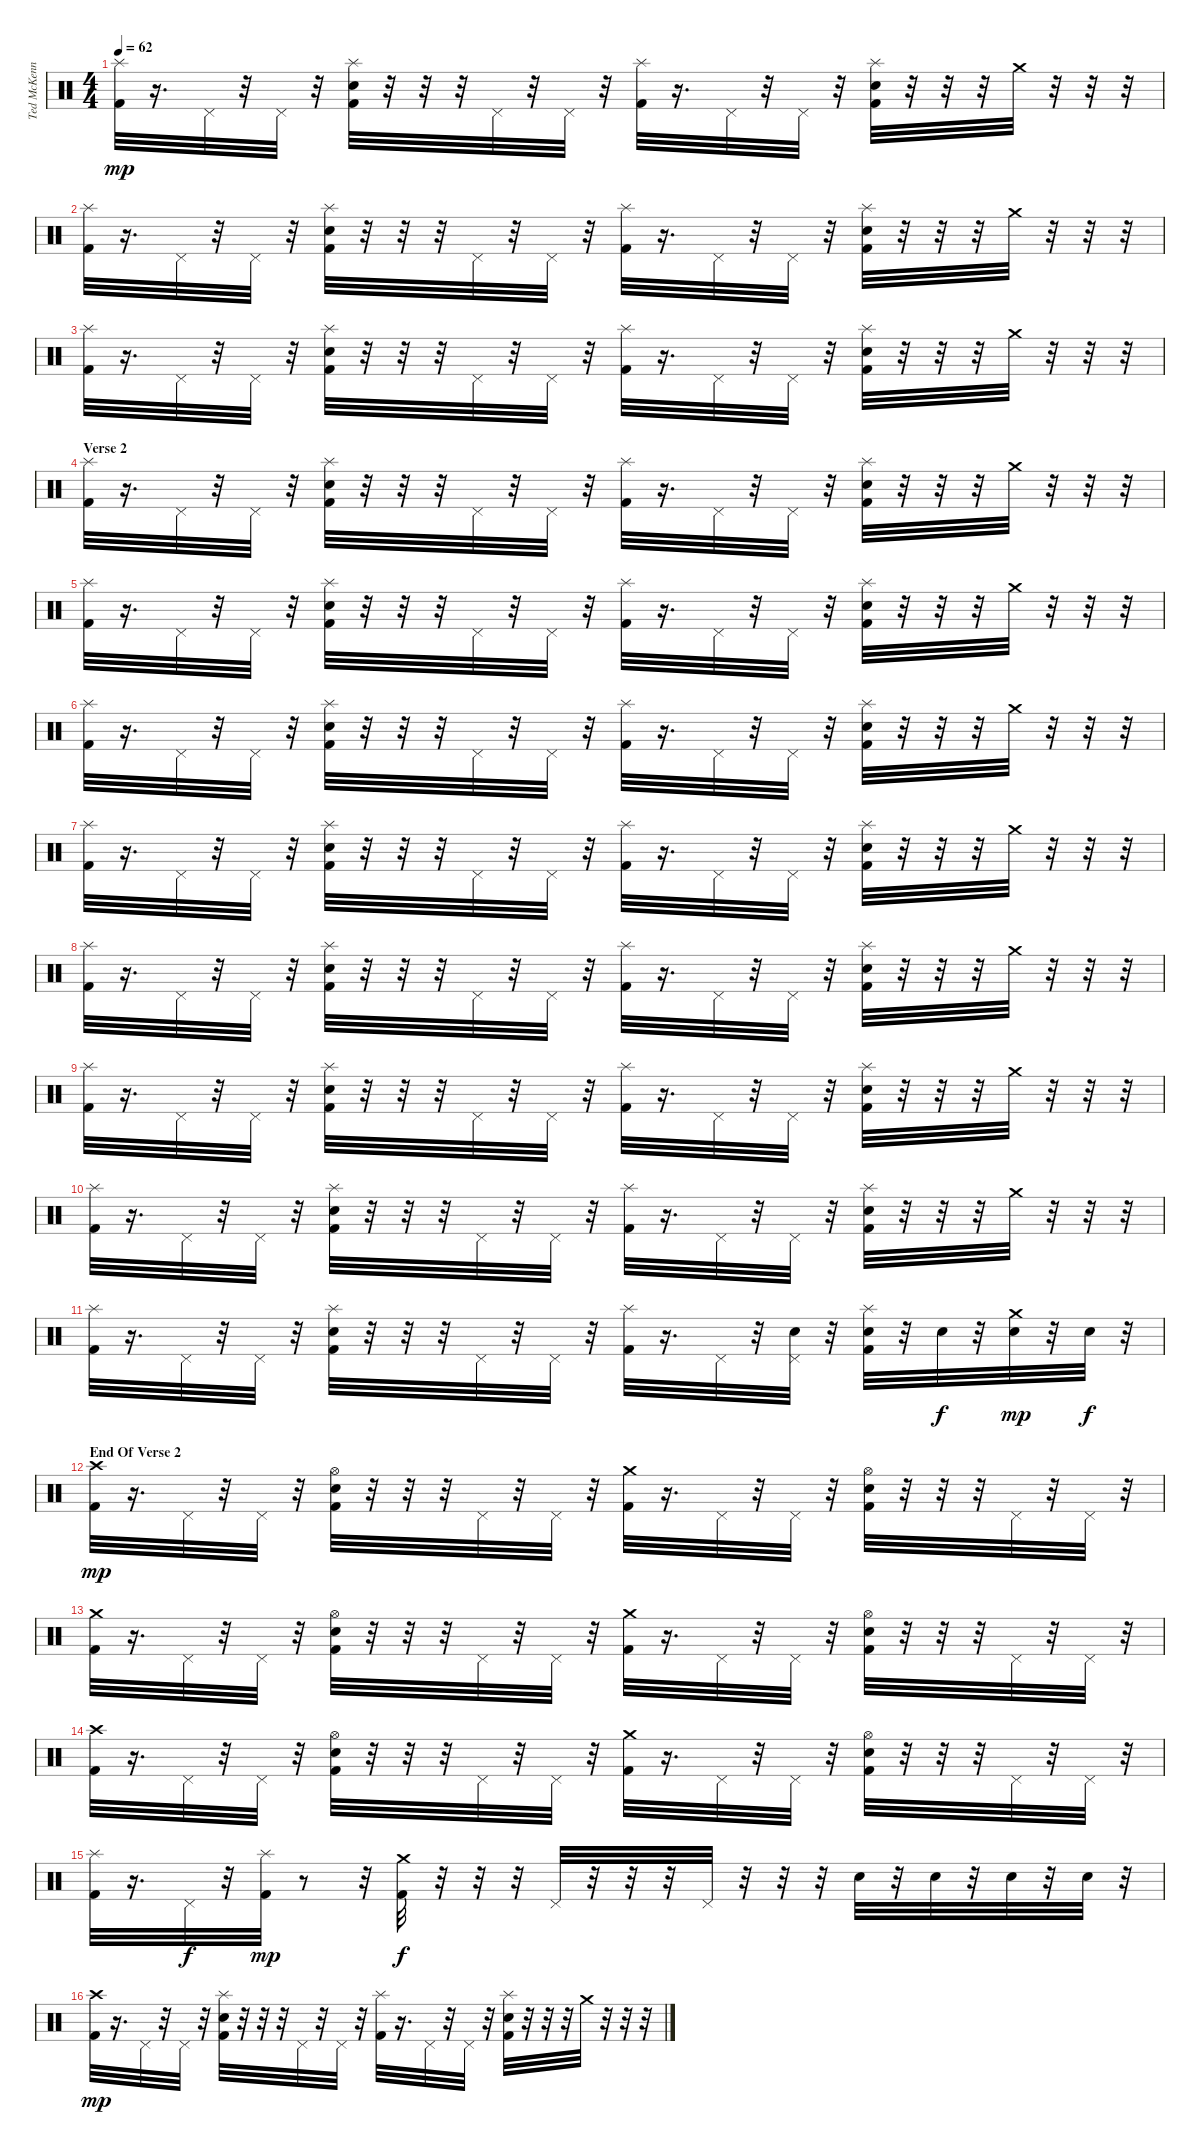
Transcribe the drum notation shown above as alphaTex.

\track ("Ted McKenna" "Ted McKenn") {instrument percussion}
\staff {score}
\articulation defaults
\ts (4 4)
\tempo 62
\clef neutral
\ks c
("Splash (hit)" "Kick (hit) 2").32{dy mp} r.16{d} "Pedal Hi-Hat (hit)".32 r.32 "Pedal Hi-Hat (hit)".32 r.32 ("Splash (hit)" "Electric Snare (hit)" "Kick (hit) 2").32 r.32 r.32 r.32 "Pedal Hi-Hat (hit)".32 r.32 "Pedal Hi-Hat (hit)".32 r.32 ("Splash (hit)" "Kick (hit) 2").32 r.16{d} "Pedal Hi-Hat (hit)".32 r.32 "Pedal Hi-Hat (hit)".32 r.32 ("Splash (hit)" "Electric Snare (hit)" "Kick (hit) 2").32 r.32 r.32 r.32 "Crash medium (hit)".32 r.32 r.32 r.32 |
("Splash (hit)" "Kick (hit) 2").32 r.16{d} "Pedal Hi-Hat (hit)".32 r.32 "Pedal Hi-Hat (hit)".32 r.32 ("Splash (hit)" "Electric Snare (hit)" "Kick (hit) 2").32 r.32 r.32 r.32 "Pedal Hi-Hat (hit)".32 r.32 "Pedal Hi-Hat (hit)".32 r.32 ("Splash (hit)" "Kick (hit) 2").32 r.16{d} "Pedal Hi-Hat (hit)".32 r.32 "Pedal Hi-Hat (hit)".32 r.32 ("Splash (hit)" "Electric Snare (hit)" "Kick (hit) 2").32 r.32 r.32 r.32 "Crash medium (hit)".32 r.32 r.32 r.32 |
("Splash (hit)" "Kick (hit) 2").32 r.16{d} "Pedal Hi-Hat (hit)".32 r.32 "Pedal Hi-Hat (hit)".32 r.32 ("Splash (hit)" "Electric Snare (hit)" "Kick (hit) 2").32 r.32 r.32 r.32 "Pedal Hi-Hat (hit)".32 r.32 "Pedal Hi-Hat (hit)".32 r.32 ("Splash (hit)" "Kick (hit) 2").32 r.16{d} "Pedal Hi-Hat (hit)".32 r.32 "Pedal Hi-Hat (hit)".32 r.32 ("Splash (hit)" "Electric Snare (hit)" "Kick (hit) 2").32 r.32 r.32 r.32 "Crash medium (hit)".32 r.32 r.32 r.32 |
\section ("" "Verse 2")
("Splash (hit)" "Kick (hit) 2").32 r.16{d} "Pedal Hi-Hat (hit)".32 r.32 "Pedal Hi-Hat (hit)".32 r.32 ("Splash (hit)" "Electric Snare (hit)" "Kick (hit) 2").32 r.32 r.32 r.32 "Pedal Hi-Hat (hit)".32 r.32 "Pedal Hi-Hat (hit)".32 r.32 ("Splash (hit)" "Kick (hit) 2").32 r.16{d} "Pedal Hi-Hat (hit)".32 r.32 "Pedal Hi-Hat (hit)".32 r.32 ("Splash (hit)" "Electric Snare (hit)" "Kick (hit) 2").32 r.32 r.32 r.32 "Crash medium (hit)".32 r.32 r.32 r.32 |
("Splash (hit)" "Kick (hit) 2").32 r.16{d} "Pedal Hi-Hat (hit)".32 r.32 "Pedal Hi-Hat (hit)".32 r.32 ("Splash (hit)" "Electric Snare (hit)" "Kick (hit) 2").32 r.32 r.32 r.32 "Pedal Hi-Hat (hit)".32 r.32 "Pedal Hi-Hat (hit)".32 r.32 ("Splash (hit)" "Kick (hit) 2").32 r.16{d} "Pedal Hi-Hat (hit)".32 r.32 "Pedal Hi-Hat (hit)".32 r.32 ("Splash (hit)" "Electric Snare (hit)" "Kick (hit) 2").32 r.32 r.32 r.32 "Crash medium (hit)".32 r.32 r.32 r.32 |
("Splash (hit)" "Kick (hit) 2").32 r.16{d} "Pedal Hi-Hat (hit)".32 r.32 "Pedal Hi-Hat (hit)".32 r.32 ("Splash (hit)" "Electric Snare (hit)" "Kick (hit) 2").32 r.32 r.32 r.32 "Pedal Hi-Hat (hit)".32 r.32 "Pedal Hi-Hat (hit)".32 r.32 ("Splash (hit)" "Kick (hit) 2").32 r.16{d} "Pedal Hi-Hat (hit)".32 r.32 "Pedal Hi-Hat (hit)".32 r.32 ("Splash (hit)" "Electric Snare (hit)" "Kick (hit) 2").32 r.32 r.32 r.32 "Crash medium (hit)".32 r.32 r.32 r.32 |
("Splash (hit)" "Kick (hit) 2").32 r.16{d} "Pedal Hi-Hat (hit)".32 r.32 "Pedal Hi-Hat (hit)".32 r.32 ("Splash (hit)" "Electric Snare (hit)" "Kick (hit) 2").32 r.32 r.32 r.32 "Pedal Hi-Hat (hit)".32 r.32 "Pedal Hi-Hat (hit)".32 r.32 ("Splash (hit)" "Kick (hit) 2").32 r.16{d} "Pedal Hi-Hat (hit)".32 r.32 "Pedal Hi-Hat (hit)".32 r.32 ("Splash (hit)" "Electric Snare (hit)" "Kick (hit) 2").32 r.32 r.32 r.32 "Crash medium (hit)".32 r.32 r.32 r.32 |
("Splash (hit)" "Kick (hit) 2").32 r.16{d} "Pedal Hi-Hat (hit)".32 r.32 "Pedal Hi-Hat (hit)".32 r.32 ("Splash (hit)" "Electric Snare (hit)" "Kick (hit) 2").32 r.32 r.32 r.32 "Pedal Hi-Hat (hit)".32 r.32 "Pedal Hi-Hat (hit)".32 r.32 ("Splash (hit)" "Kick (hit) 2").32 r.16{d} "Pedal Hi-Hat (hit)".32 r.32 "Pedal Hi-Hat (hit)".32 r.32 ("Splash (hit)" "Electric Snare (hit)" "Kick (hit) 2").32 r.32 r.32 r.32 "Crash medium (hit)".32 r.32 r.32 r.32 |
("Splash (hit)" "Kick (hit) 2").32 r.16{d} "Pedal Hi-Hat (hit)".32 r.32 "Pedal Hi-Hat (hit)".32 r.32 ("Splash (hit)" "Electric Snare (hit)" "Kick (hit) 2").32 r.32 r.32 r.32 "Pedal Hi-Hat (hit)".32 r.32 "Pedal Hi-Hat (hit)".32 r.32 ("Splash (hit)" "Kick (hit) 2").32 r.16{d} "Pedal Hi-Hat (hit)".32 r.32 "Pedal Hi-Hat (hit)".32 r.32 ("Splash (hit)" "Electric Snare (hit)" "Kick (hit) 2").32 r.32 r.32 r.32 "Crash medium (hit)".32 r.32 r.32 r.32 |
("Splash (hit)" "Kick (hit) 2").32 r.16{d} "Pedal Hi-Hat (hit)".32 r.32 "Pedal Hi-Hat (hit)".32 r.32 ("Splash (hit)" "Electric Snare (hit)" "Kick (hit) 2").32 r.32 r.32 r.32 "Pedal Hi-Hat (hit)".32 r.32 "Pedal Hi-Hat (hit)".32 r.32 ("Splash (hit)" "Kick (hit) 2").32 r.16{d} "Pedal Hi-Hat (hit)".32 r.32 "Pedal Hi-Hat (hit)".32 r.32 ("Splash (hit)" "Electric Snare (hit)" "Kick (hit) 2").32 r.32 r.32 r.32 "Crash medium (hit)".32 r.32 r.32 r.32 |
("Splash (hit)" "Kick (hit) 2").32 r.16{d} "Pedal Hi-Hat (hit)".32 r.32 "Pedal Hi-Hat (hit)".32 r.32 ("Splash (hit)" "Electric Snare (hit)" "Kick (hit) 2").32 r.32 r.32 r.32 "Pedal Hi-Hat (hit)".32 r.32 "Pedal Hi-Hat (hit)".32 r.32 ("Splash (hit)" "Kick (hit) 2").32 r.16{d} "Pedal Hi-Hat (hit)".32 r.32 ("Pedal Hi-Hat (hit)" "Electric Snare (hit)").32 r.32 ("Splash (hit)" "Electric Snare (hit)" "Kick (hit) 2").32 r.32 "Electric Snare (hit)".32{dy f} r.32 ("Crash medium (hit)" "Electric Snare (hit)").32{dy mp} r.32 "Electric Snare (hit)".32{dy f} r.32 |
\section ("" "End Of Verse 2")
("Crash high (hit)" "Kick (hit) 2").32{dy mp} r.16{d} "Pedal Hi-Hat (hit)".32 r.32 "Pedal Hi-Hat (hit)".32 r.32 ("Hi-Hat (open)" "Electric Snare (hit)" "Kick (hit) 2").32 r.32 r.32 r.32 "Pedal Hi-Hat (hit)".32 r.32 "Pedal Hi-Hat (hit)".32 r.32 ("Crash medium (hit)" "Kick (hit) 2").32 r.16{d} "Pedal Hi-Hat (hit)".32 r.32 "Pedal Hi-Hat (hit)".32 r.32 ("Hi-Hat (open)" "Electric Snare (hit)" "Kick (hit) 2").32 r.32 r.32 r.32 "Pedal Hi-Hat (hit)".32 r.32 "Pedal Hi-Hat (hit)".32 r.32 |
("Crash medium (hit)" "Kick (hit) 2").32 r.16{d} "Pedal Hi-Hat (hit)".32 r.32 "Pedal Hi-Hat (hit)".32 r.32 ("Hi-Hat (open)" "Electric Snare (hit)" "Kick (hit) 2").32 r.32 r.32 r.32 "Pedal Hi-Hat (hit)".32 r.32 "Pedal Hi-Hat (hit)".32 r.32 ("Crash medium (hit)" "Kick (hit) 2").32 r.16{d} "Pedal Hi-Hat (hit)".32 r.32 "Pedal Hi-Hat (hit)".32 r.32 ("Hi-Hat (open)" "Electric Snare (hit)" "Kick (hit) 2").32 r.32 r.32 r.32 "Pedal Hi-Hat (hit)".32 r.32 "Pedal Hi-Hat (hit)".32 r.32 |
("Crash high (hit)" "Kick (hit) 2").32 r.16{d} "Pedal Hi-Hat (hit)".32 r.32 "Pedal Hi-Hat (hit)".32 r.32 ("Hi-Hat (open)" "Electric Snare (hit)" "Kick (hit) 2").32 r.32 r.32 r.32 "Pedal Hi-Hat (hit)".32 r.32 "Pedal Hi-Hat (hit)".32 r.32 ("Crash medium (hit)" "Kick (hit) 2").32 r.16{d} "Pedal Hi-Hat (hit)".32 r.32 "Pedal Hi-Hat (hit)".32 r.32 ("Hi-Hat (open)" "Electric Snare (hit)" "Kick (hit) 2").32 r.32 r.32 r.32 "Pedal Hi-Hat (hit)".32 r.32 "Pedal Hi-Hat (hit)".32 r.32 |
("Splash (hit)" "Kick (hit) 2").32 r.16{d} "Pedal Hi-Hat (hit)".32{dy f} r.32 ("Splash (hit)" "Kick (hit) 2").32{dy mp} r.8 r.32 ("Crash medium (hit)" "Kick (hit) 2").32{dy f} r.32 r.32 r.32 "Pedal Hi-Hat (hit)".32 r.32 r.32 r.32 "Pedal Hi-Hat (hit)".32 r.32 r.32 r.32 "Electric Snare (hit)".32 r.32 "Electric Snare (hit)".32 r.32 "Electric Snare (hit)".32 r.32 "Electric Snare (hit)".32 r.32 |
("Crash high (hit)" "Kick (hit) 2").32{dy mp} r.16{d} "Pedal Hi-Hat (hit)".32 r.32 "Pedal Hi-Hat (hit)".32 r.32 ("Splash (hit)" "Electric Snare (hit)" "Kick (hit) 2").32 r.32 r.32 r.32 "Pedal Hi-Hat (hit)".32 r.32 "Pedal Hi-Hat (hit)".32 r.32 ("Splash (hit)" "Kick (hit) 2").32 r.16{d} "Pedal Hi-Hat (hit)".32 r.32 "Pedal Hi-Hat (hit)".32 r.32 ("Splash (hit)" "Electric Snare (hit)" "Kick (hit) 2").32 r.32 r.32 r.32 "Crash medium (hit)".32 r.32 r.32 r.32
